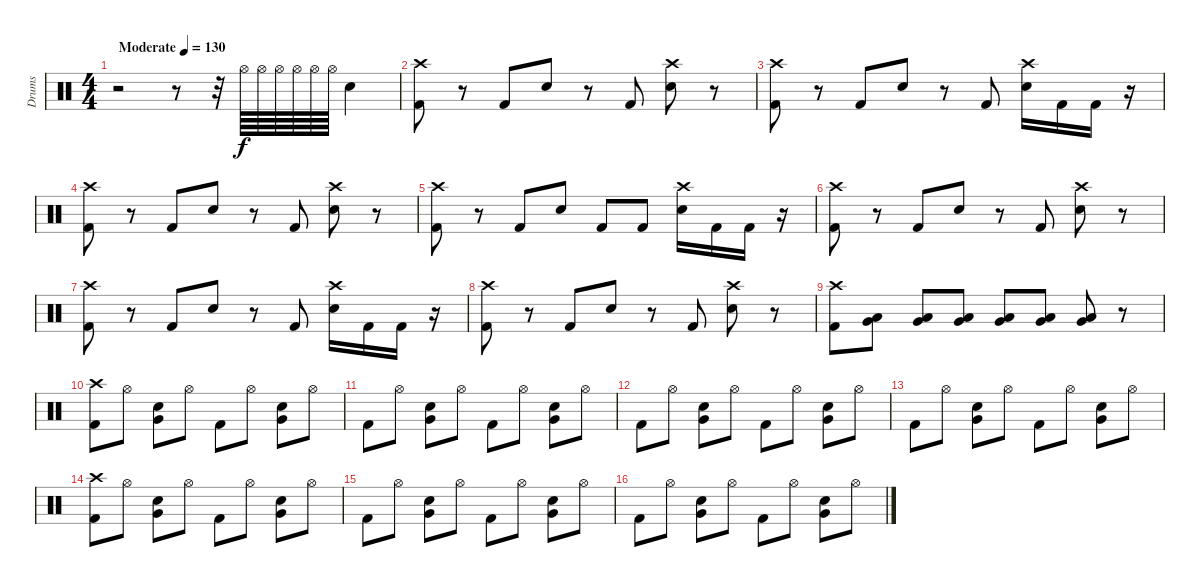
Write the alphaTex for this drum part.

\track ("Drums" "Drums") {instrument percussion}
\staff {score}
\articulation defaults
\ts (4 4)
\tempo (130 "Moderate")
\clef neutral
\ks c
r.2{dy f} r.8 r.32 "Hi-Hat (open)".64 "Hi-Hat (open)".64 "Hi-Hat (open)".64 "Hi-Hat (open)".64 "Hi-Hat (open)".64 "Hi-Hat (open)".64 "Electric Snare (hit)".4 |
("Kick (hit) 2" "Crash high (hit)").8 r.8 "Kick (hit) 2".8 "Electric Snare (hit)".8 r.8 "Kick (hit) 2".8 ("Electric Snare (hit)" "Crash high (hit)").8 r.8 |
("Kick (hit) 2" "Crash high (hit)").8 r.8 "Kick (hit) 2".8 "Electric Snare (hit)".8 r.8 "Kick (hit) 2".8 ("Electric Snare (hit)" "Crash high (hit)").16 "Kick (hit) 2".16 "Kick (hit) 2".16 r.16 |
("Kick (hit) 2" "Crash high (hit)").8 r.8 "Kick (hit) 2".8 "Electric Snare (hit)".8 r.8 "Kick (hit) 2".8 ("Electric Snare (hit)" "Crash high (hit)").8 r.8 |
("Kick (hit) 2" "Crash high (hit)").8 r.8 "Kick (hit) 2".8 "Electric Snare (hit)".8 "Kick (hit) 2".8 "Kick (hit) 2".8 ("Electric Snare (hit)" "Crash high (hit)").16 "Kick (hit) 2".16 "Kick (hit) 2".16 r.16 |
("Kick (hit) 2" "Crash high (hit)").8 r.8 "Kick (hit) 2".8 "Electric Snare (hit)".8 r.8 "Kick (hit) 2".8 ("Electric Snare (hit)" "Crash high (hit)").8 r.8 |
("Kick (hit) 2" "Crash high (hit)").8 r.8 "Kick (hit) 2".8 "Electric Snare (hit)".8 r.8 "Kick (hit) 2".8 ("Electric Snare (hit)" "Crash high (hit)").16 "Kick (hit) 2".16 "Kick (hit) 2".16 r.16 |
("Kick (hit) 2" "Crash high (hit)").8 r.8 "Kick (hit) 2".8 "Electric Snare (hit)".8 r.8 "Kick (hit) 2".8 ("Electric Snare (hit)" "Crash high (hit)").8 r.8 |
("Kick (hit) 2" "Crash high (hit)").8 ("Low Floor Tom (hit)" "Very Low Tom (hit)").8 ("Low Floor Tom (hit)" "Very Low Tom (hit)").8 ("Low Floor Tom (hit)" "Very Low Tom (hit)").8 ("Low Floor Tom (hit)" "Very Low Tom (hit)").8 ("Low Floor Tom (hit)" "Very Low Tom (hit)").8 ("Low Floor Tom (hit)" "Very Low Tom (hit)").8 r.8 |
("Kick (hit) 2" "Crash high (hit)").8 "Hi-Hat (open)".8 ("Snare (hit) 2" "Very Low Tom (hit)").8 "Hi-Hat (open)".8 "Kick (hit) 2".8 "Hi-Hat (open)".8 ("Snare (hit) 2" "Very Low Tom (hit)").8 "Hi-Hat (open)".8 |
"Kick (hit) 2".8 "Hi-Hat (open)".8 ("Snare (hit) 2" "Very Low Tom (hit)").8 "Hi-Hat (open)".8 "Kick (hit) 2".8 "Hi-Hat (open)".8 ("Snare (hit) 2" "Very Low Tom (hit)").8 "Hi-Hat (open)".8 |
"Kick (hit) 2".8 "Hi-Hat (open)".8 ("Snare (hit) 2" "Very Low Tom (hit)").8 "Hi-Hat (open)".8 "Kick (hit) 2".8 "Hi-Hat (open)".8 ("Snare (hit) 2" "Very Low Tom (hit)").8 "Hi-Hat (open)".8 |
"Kick (hit) 2".8 "Hi-Hat (open)".8 ("Snare (hit) 2" "Very Low Tom (hit)").8 "Hi-Hat (open)".8 "Kick (hit) 2".8 "Hi-Hat (open)".8 ("Snare (hit) 2" "Very Low Tom (hit)").8 "Hi-Hat (open)".8 |
("Kick (hit) 2" "Crash high (hit)").8 "Hi-Hat (open)".8 ("Snare (hit) 2" "Very Low Tom (hit)").8 "Hi-Hat (open)".8 "Kick (hit) 2".8 "Hi-Hat (open)".8 ("Snare (hit) 2" "Very Low Tom (hit)").8 "Hi-Hat (open)".8 |
"Kick (hit) 2".8 "Hi-Hat (open)".8 ("Snare (hit) 2" "Very Low Tom (hit)").8 "Hi-Hat (open)".8 "Kick (hit) 2".8 "Hi-Hat (open)".8 ("Snare (hit) 2" "Very Low Tom (hit)").8 "Hi-Hat (open)".8 |
"Kick (hit) 2".8 "Hi-Hat (open)".8 ("Snare (hit) 2" "Very Low Tom (hit)").8 "Hi-Hat (open)".8 "Kick (hit) 2".8 "Hi-Hat (open)".8 ("Snare (hit) 2" "Very Low Tom (hit)").8 "Hi-Hat (open)".8
